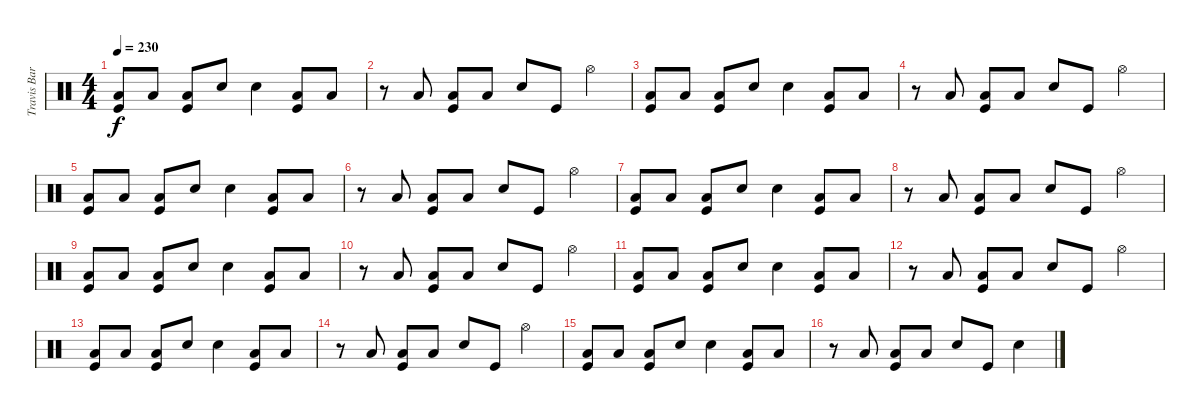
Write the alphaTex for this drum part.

\track ("Travis Barker" "Travis Bar") {instrument percussion}
\staff {score}
\articulation defaults
\ts (4 4)
\tempo 230
\clef neutral
\ks c
("Low Floor Tom (hit)" "Kick (hit)").8{dy f} "Low Floor Tom (hit)".8 ("Low Floor Tom (hit)" "Kick (hit)").8 "Electric Snare (hit)".8 "Electric Snare (hit)".4 ("Low Floor Tom (hit)" "Kick (hit)").8 "Low Floor Tom (hit)".8 |
r.8 "Low Floor Tom (hit)".8 ("Low Floor Tom (hit)" "Kick (hit)").8 "Low Floor Tom (hit)".8 "Electric Snare (hit)".8 "Kick (hit)".8 "Hi-Hat (open)".4 |
("Low Floor Tom (hit)" "Kick (hit)").8 "Low Floor Tom (hit)".8 ("Low Floor Tom (hit)" "Kick (hit)").8 "Electric Snare (hit)".8 "Electric Snare (hit)".4 ("Low Floor Tom (hit)" "Kick (hit)").8 "Low Floor Tom (hit)".8 |
r.8 "Low Floor Tom (hit)".8 ("Low Floor Tom (hit)" "Kick (hit)").8 "Low Floor Tom (hit)".8 "Electric Snare (hit)".8 "Kick (hit)".8 "Hi-Hat (open)".4 |
("Low Floor Tom (hit)" "Kick (hit)").8 "Low Floor Tom (hit)".8 ("Low Floor Tom (hit)" "Kick (hit)").8 "Electric Snare (hit)".8 "Electric Snare (hit)".4 ("Low Floor Tom (hit)" "Kick (hit)").8 "Low Floor Tom (hit)".8 |
r.8 "Low Floor Tom (hit)".8 ("Low Floor Tom (hit)" "Kick (hit)").8 "Low Floor Tom (hit)".8 "Electric Snare (hit)".8 "Kick (hit)".8 "Hi-Hat (open)".4 |
("Low Floor Tom (hit)" "Kick (hit)").8 "Low Floor Tom (hit)".8 ("Low Floor Tom (hit)" "Kick (hit)").8 "Electric Snare (hit)".8 "Electric Snare (hit)".4 ("Low Floor Tom (hit)" "Kick (hit)").8 "Low Floor Tom (hit)".8 |
r.8 "Low Floor Tom (hit)".8 ("Low Floor Tom (hit)" "Kick (hit)").8 "Low Floor Tom (hit)".8 "Electric Snare (hit)".8 "Kick (hit)".8 "Hi-Hat (open)".4 |
("Low Floor Tom (hit)" "Kick (hit)").8 "Low Floor Tom (hit)".8 ("Low Floor Tom (hit)" "Kick (hit)").8 "Electric Snare (hit)".8 "Electric Snare (hit)".4 ("Low Floor Tom (hit)" "Kick (hit)").8 "Low Floor Tom (hit)".8 |
r.8 "Low Floor Tom (hit)".8 ("Low Floor Tom (hit)" "Kick (hit)").8 "Low Floor Tom (hit)".8 "Electric Snare (hit)".8 "Kick (hit)".8 "Hi-Hat (open)".4 |
("Low Floor Tom (hit)" "Kick (hit)").8 "Low Floor Tom (hit)".8 ("Low Floor Tom (hit)" "Kick (hit)").8 "Electric Snare (hit)".8 "Electric Snare (hit)".4 ("Low Floor Tom (hit)" "Kick (hit)").8 "Low Floor Tom (hit)".8 |
r.8 "Low Floor Tom (hit)".8 ("Low Floor Tom (hit)" "Kick (hit)").8 "Low Floor Tom (hit)".8 "Electric Snare (hit)".8 "Kick (hit)".8 "Hi-Hat (open)".4 |
("Low Floor Tom (hit)" "Kick (hit)").8 "Low Floor Tom (hit)".8 ("Low Floor Tom (hit)" "Kick (hit)").8 "Electric Snare (hit)".8 "Electric Snare (hit)".4 ("Low Floor Tom (hit)" "Kick (hit)").8 "Low Floor Tom (hit)".8 |
r.8 "Low Floor Tom (hit)".8 ("Low Floor Tom (hit)" "Kick (hit)").8 "Low Floor Tom (hit)".8 "Electric Snare (hit)".8 "Kick (hit)".8 "Hi-Hat (open)".4 |
("Low Floor Tom (hit)" "Kick (hit)").8 "Low Floor Tom (hit)".8 ("Low Floor Tom (hit)" "Kick (hit)").8 "Electric Snare (hit)".8 "Electric Snare (hit)".4 ("Low Floor Tom (hit)" "Kick (hit)").8 "Low Floor Tom (hit)".8 |
r.8 "Low Floor Tom (hit)".8 ("Low Floor Tom (hit)" "Kick (hit)").8 "Low Floor Tom (hit)".8 "Electric Snare (hit)".8 "Kick (hit)".8 "Electric Snare (hit)".4
